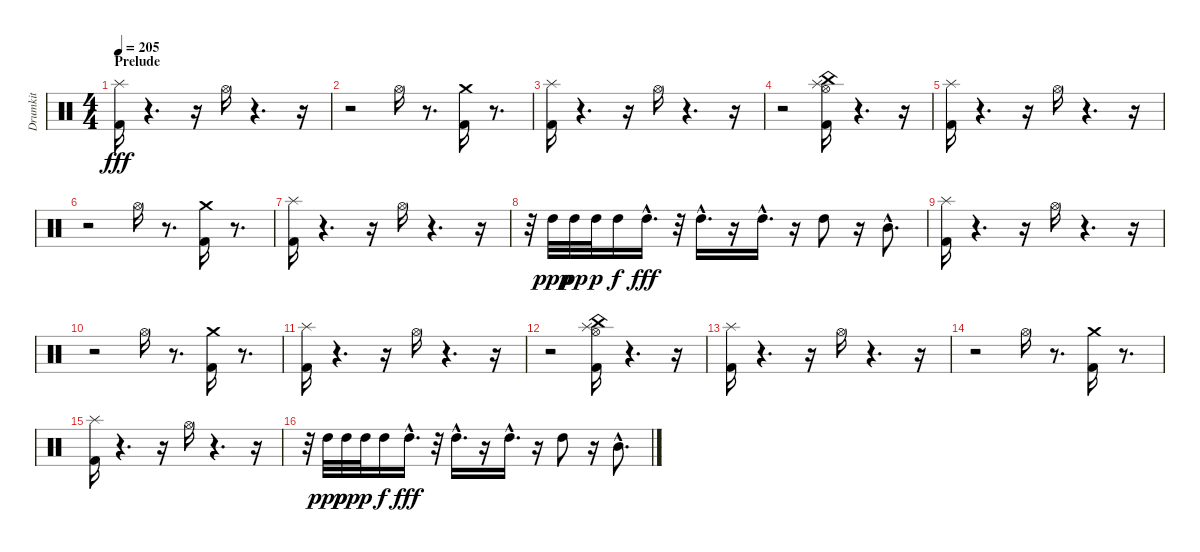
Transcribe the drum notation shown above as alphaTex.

\track ("Drumkit" "Drumkit") {instrument percussion}
\staff {score}
\articulation defaults
\ts (4 4)
\section ("" "Prelude")
\tempo 205
\clef neutral
\ks c
("Kick (hit) 2" "Splash (hit)").16{dy fff} r.4{d} r.16 "Hi-Hat (open)".16 r.4{d} r.16 |
r.2 "Hi-Hat (open)".16 r.8{d} ("Kick (hit) 2" "Crash medium (hit)").16 r.8{d} |
("Kick (hit) 2" "Splash (hit)").16 r.4{d} r.16 "Hi-Hat (open)".16 r.4{d} r.16 |
r.2 ("Kick (hit) 2" "Hi-Hat (open)" "Splash (hit)" "China (hit)").16 r.4{d} r.16 |
("Kick (hit) 2" "Splash (hit)").16 r.4{d} r.16 "Hi-Hat (open)".16 r.4{d} r.16 |
r.2 "Hi-Hat (open)".16 r.8{d} ("Kick (hit) 2" "Crash medium (hit)").16 r.8{d} |
("Kick (hit) 2" "Splash (hit)").16 r.4{d} r.16 "Hi-Hat (open)".16 r.4{d} r.16 |
r.32 "High Tom (hit)".32{dy ppp} "High Tom (hit)".32{dy pp} "High Tom (hit)".32{dy p} "High Tom (hit)".16{dy f} "High Tom (hit)"{hac}.16{d dy fff} r.32 "High Tom (hit)"{hac}.16{d} r.16 "High Tom (hit)"{hac}.16{d} r.16 "High Tom (hit)".8 r.16 "Mid Tom (hit)"{hac}.8{d} |
("Kick (hit) 2" "Splash (hit)").16 r.4{d} r.16 "Hi-Hat (open)".16 r.4{d} r.16 |
r.2 "Hi-Hat (open)".16 r.8{d} ("Kick (hit) 2" "Crash medium (hit)").16 r.8{d} |
("Kick (hit) 2" "Splash (hit)").16 r.4{d} r.16 "Hi-Hat (open)".16 r.4{d} r.16 |
r.2 ("Kick (hit) 2" "Hi-Hat (open)" "Splash (hit)" "China (hit)").16 r.4{d} r.16 |
("Kick (hit) 2" "Splash (hit)").16 r.4{d} r.16 "Hi-Hat (open)".16 r.4{d} r.16 |
r.2 "Hi-Hat (open)".16 r.8{d} ("Kick (hit) 2" "Crash medium (hit)").16 r.8{d} |
("Kick (hit) 2" "Splash (hit)").16 r.4{d} r.16 "Hi-Hat (open)".16 r.4{d} r.16 |
r.32 "High Tom (hit)".32{dy ppp} "High Tom (hit)".32{dy pp} "High Tom (hit)".32{dy p} "High Tom (hit)".16{dy f} "High Tom (hit)"{hac}.16{d dy fff} r.32 "High Tom (hit)"{hac}.16{d} r.16 "High Tom (hit)"{hac}.16{d} r.16 "High Tom (hit)".8 r.16 "Mid Tom (hit)"{hac}.8{d}
